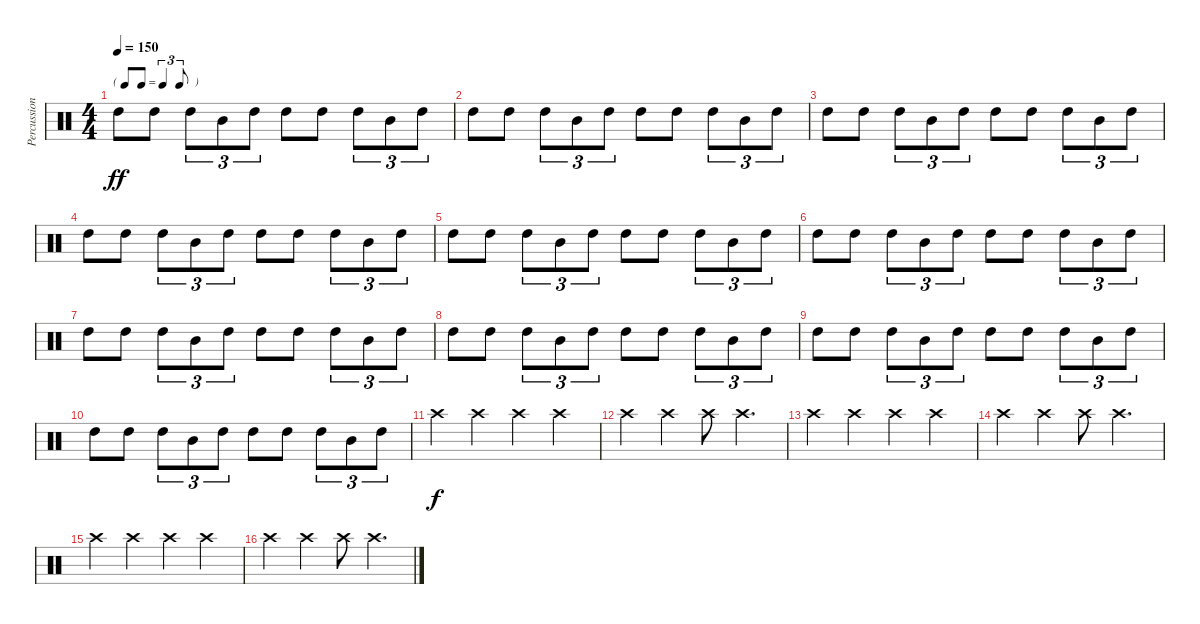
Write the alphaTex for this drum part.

\track ("Percussion" "Percussion") {instrument percussion}
\staff {score}
\articulation defaults
\ts (4 4)
\tf triplet8th
\tempo 150
\clef neutral
\ks c "High Tom (hit)".8{dy ff} "High Tom (hit)".8 "High Tom (hit)".8{tu (3 2)} "Mid Tom (hit)".8{tu (3 2)} "High Tom (hit)".8{tu (3 2)} "High Tom (hit)".8 "High Tom (hit)".8 "High Tom (hit)".8{tu (3 2)} "Mid Tom (hit)".8{tu (3 2)} "High Tom (hit)".8{tu (3 2)}
|
"High Tom (hit)".8 "High Tom (hit)".8 "High Tom (hit)".8{tu (3 2)} "Mid Tom (hit)".8{tu (3 2)} "High Tom (hit)".8{tu (3 2)} "High Tom (hit)".8 "High Tom (hit)".8 "High Tom (hit)".8{tu (3 2)} "Mid Tom (hit)".8{tu (3 2)} "High Tom (hit)".8{tu (3 2)} |
"High Tom (hit)".8 "High Tom (hit)".8 "High Tom (hit)".8{tu (3 2)} "Mid Tom (hit)".8{tu (3 2)} "High Tom (hit)".8{tu (3 2)} "High Tom (hit)".8 "High Tom (hit)".8 "High Tom (hit)".8{tu (3 2)} "Mid Tom (hit)".8{tu (3 2)} "High Tom (hit)".8{tu (3 2)} |
"High Tom (hit)".8 "High Tom (hit)".8 "High Tom (hit)".8{tu (3 2)} "Mid Tom (hit)".8{tu (3 2)} "High Tom (hit)".8{tu (3 2)} "High Tom (hit)".8 "High Tom (hit)".8 "High Tom (hit)".8{tu (3 2)} "Mid Tom (hit)".8{tu (3 2)} "High Tom (hit)".8{tu (3 2)} |
"High Tom (hit)".8 "High Tom (hit)".8 "High Tom (hit)".8{tu (3 2)} "Mid Tom (hit)".8{tu (3 2)} "High Tom (hit)".8{tu (3 2)} "High Tom (hit)".8 "High Tom (hit)".8 "High Tom (hit)".8{tu (3 2)} "Mid Tom (hit)".8{tu (3 2)} "High Tom (hit)".8{tu (3 2)} |
"High Tom (hit)".8 "High Tom (hit)".8 "High Tom (hit)".8{tu (3 2)} "Mid Tom (hit)".8{tu (3 2)} "High Tom (hit)".8{tu (3 2)} "High Tom (hit)".8 "High Tom (hit)".8 "High Tom (hit)".8{tu (3 2)} "Mid Tom (hit)".8{tu (3 2)} "High Tom (hit)".8{tu (3 2)} |
"High Tom (hit)".8 "High Tom (hit)".8 "High Tom (hit)".8{tu (3 2)} "Mid Tom (hit)".8{tu (3 2)} "High Tom (hit)".8{tu (3 2)} "High Tom (hit)".8 "High Tom (hit)".8 "High Tom (hit)".8{tu (3 2)} "Mid Tom (hit)".8{tu (3 2)} "High Tom (hit)".8{tu (3 2)} |
"High Tom (hit)".8 "High Tom (hit)".8 "High Tom (hit)".8{tu (3 2)} "Mid Tom (hit)".8{tu (3 2)} "High Tom (hit)".8{tu (3 2)} "High Tom (hit)".8 "High Tom (hit)".8 "High Tom (hit)".8{tu (3 2)} "Mid Tom (hit)".8{tu (3 2)} "High Tom (hit)".8{tu (3 2)} |
"High Tom (hit)".8 "High Tom (hit)".8 "High Tom (hit)".8{tu (3 2)} "Mid Tom (hit)".8{tu (3 2)} "High Tom (hit)".8{tu (3 2)} "High Tom (hit)".8 "High Tom (hit)".8 "High Tom (hit)".8{tu (3 2)} "Mid Tom (hit)".8{tu (3 2)} "High Tom (hit)".8{tu (3 2)} |
"High Tom (hit)".8 "High Tom (hit)".8 "High Tom (hit)".8{tu (3 2)} "Mid Tom (hit)".8{tu (3 2)} "High Tom (hit)".8{tu (3 2)} "High Tom (hit)".8 "High Tom (hit)".8 "High Tom (hit)".8{tu (3 2)} "Mid Tom (hit)".8{tu (3 2)} "High Tom (hit)".8{tu (3 2)} |
"Crash high (hit)".4{dy f} "Crash high (hit)".4 "Crash high (hit)".4 "Crash high (hit)".4 |
"Crash high (hit)".4 "Crash high (hit)".4 "Crash high (hit)".8 "Crash high (hit)".4{d} |
"Crash high (hit)".4 "Crash high (hit)".4 "Crash high (hit)".4 "Crash high (hit)".4 |
"Crash high (hit)".4 "Crash high (hit)".4 "Crash high (hit)".8 "Crash high (hit)".4{d} |
"Crash high (hit)".4 "Crash high (hit)".4 "Crash high (hit)".4 "Crash high (hit)".4 |
"Crash high (hit)".4 "Crash high (hit)".4 "Crash high (hit)".8 "Crash high (hit)".4{d}
